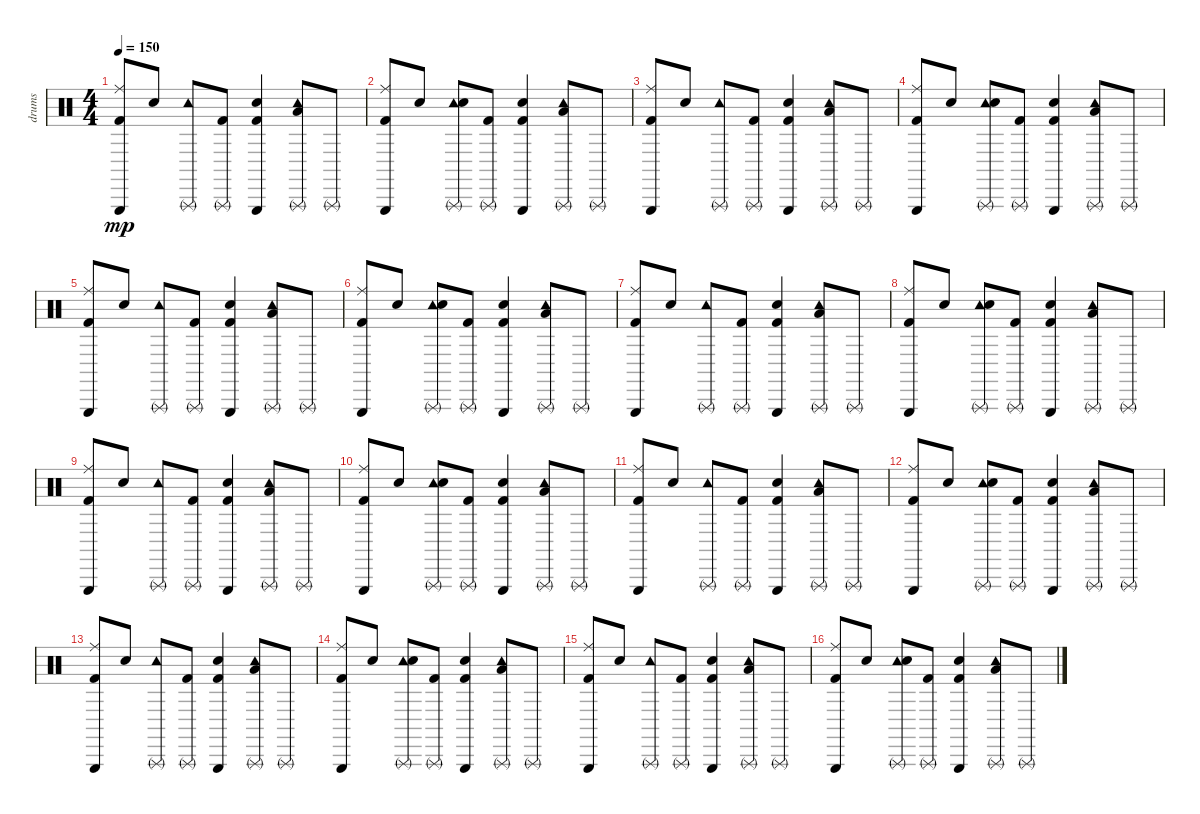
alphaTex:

\track ("drums" "drums") {instrument percussion}
\staff {score}
\articulation defaults
\ts (4 4)
\tempo 150
\clef neutral
\ks c
("Triangle (hit)" "Ride (middle)" "Kick (hit) 2").8{dy mp} "Snare (hit) 2".8 ("Triangle (rnute)" "Tambourine (hit)").8 ("Triangle (rnute)" "Kick (hit) 2").8 ("Triangle (hit)" "Kick (hit) 2" "Snare (hit) 2").4 ("Tambourine (hit)" "Low Tom (hit)" "Triangle (rnute)").8 "Triangle (rnute)".8 |
("Triangle (hit)" "Ride (middle)" "Kick (hit) 2").8 "Snare (hit) 2".8 ("Triangle (rnute)" "Tambourine (hit)" "Snare (hit) 2").8 ("Triangle (rnute)" "Kick (hit) 2").8 ("Triangle (hit)" "Kick (hit) 2" "Snare (hit) 2").4 ("Tambourine (hit)" "Low Tom (hit)" "Triangle (rnute)").8 "Triangle (rnute)".8 |
("Triangle (hit)" "Ride (middle)" "Kick (hit) 2").8 "Snare (hit) 2".8 ("Triangle (rnute)" "Tambourine (hit)").8 ("Triangle (rnute)" "Kick (hit) 2").8 ("Triangle (hit)" "Kick (hit) 2" "Snare (hit) 2").4 ("Tambourine (hit)" "Low Tom (hit)" "Triangle (rnute)").8 "Triangle (rnute)".8 |
("Triangle (hit)" "Ride (middle)" "Kick (hit) 2").8 "Snare (hit) 2".8 ("Triangle (rnute)" "Tambourine (hit)" "Snare (hit) 2").8 ("Triangle (rnute)" "Kick (hit) 2").8 ("Triangle (hit)" "Kick (hit) 2" "Snare (hit) 2").4 ("Tambourine (hit)" "Low Tom (hit)" "Triangle (rnute)").8 "Triangle (rnute)".8 |
("Triangle (hit)" "Ride (middle)" "Kick (hit) 2").8 "Snare (hit) 2".8 ("Triangle (rnute)" "Tambourine (hit)").8 ("Triangle (rnute)" "Kick (hit) 2").8 ("Triangle (hit)" "Kick (hit) 2" "Snare (hit) 2").4 ("Tambourine (hit)" "Low Tom (hit)" "Triangle (rnute)").8 "Triangle (rnute)".8 |
("Triangle (hit)" "Ride (middle)" "Kick (hit) 2").8 "Snare (hit) 2".8 ("Triangle (rnute)" "Tambourine (hit)" "Snare (hit) 2").8 ("Triangle (rnute)" "Kick (hit) 2").8 ("Triangle (hit)" "Kick (hit) 2" "Snare (hit) 2").4 ("Tambourine (hit)" "Low Tom (hit)" "Triangle (rnute)").8 "Triangle (rnute)".8 |
("Triangle (hit)" "Ride (middle)" "Kick (hit) 2").8 "Snare (hit) 2".8 ("Triangle (rnute)" "Tambourine (hit)").8 ("Triangle (rnute)" "Kick (hit) 2").8 ("Triangle (hit)" "Kick (hit) 2" "Snare (hit) 2").4 ("Tambourine (hit)" "Low Tom (hit)" "Triangle (rnute)").8 "Triangle (rnute)".8 |
("Triangle (hit)" "Ride (middle)" "Kick (hit) 2").8 "Snare (hit) 2".8 ("Triangle (rnute)" "Tambourine (hit)" "Snare (hit) 2").8 ("Triangle (rnute)" "Kick (hit) 2").8 ("Triangle (hit)" "Kick (hit) 2" "Snare (hit) 2").4 ("Tambourine (hit)" "Low Tom (hit)" "Triangle (rnute)").8 "Triangle (rnute)".8 |
("Triangle (hit)" "Ride (middle)" "Kick (hit) 2").8 "Snare (hit) 2".8 ("Triangle (rnute)" "Tambourine (hit)").8 ("Triangle (rnute)" "Kick (hit) 2").8 ("Triangle (hit)" "Kick (hit) 2" "Snare (hit) 2").4 ("Tambourine (hit)" "Low Tom (hit)" "Triangle (rnute)").8 "Triangle (rnute)".8 |
("Triangle (hit)" "Ride (middle)" "Kick (hit) 2").8 "Snare (hit) 2".8 ("Triangle (rnute)" "Tambourine (hit)" "Snare (hit) 2").8 ("Triangle (rnute)" "Kick (hit) 2").8 ("Triangle (hit)" "Kick (hit) 2" "Snare (hit) 2").4 ("Tambourine (hit)" "Low Tom (hit)" "Triangle (rnute)").8 "Triangle (rnute)".8 |
("Triangle (hit)" "Ride (middle)" "Kick (hit) 2").8 "Snare (hit) 2".8 ("Triangle (rnute)" "Tambourine (hit)").8 ("Triangle (rnute)" "Kick (hit) 2").8 ("Triangle (hit)" "Kick (hit) 2" "Snare (hit) 2").4 ("Tambourine (hit)" "Low Tom (hit)" "Triangle (rnute)").8 "Triangle (rnute)".8 |
("Triangle (hit)" "Ride (middle)" "Kick (hit) 2").8 "Snare (hit) 2".8 ("Triangle (rnute)" "Tambourine (hit)" "Snare (hit) 2").8 ("Triangle (rnute)" "Kick (hit) 2").8 ("Triangle (hit)" "Kick (hit) 2" "Snare (hit) 2").4 ("Tambourine (hit)" "Low Tom (hit)" "Triangle (rnute)").8 "Triangle (rnute)".8 |
("Triangle (hit)" "Ride (middle)" "Kick (hit) 2").8 "Snare (hit) 2".8 ("Triangle (rnute)" "Tambourine (hit)").8 ("Triangle (rnute)" "Kick (hit) 2").8 ("Triangle (hit)" "Kick (hit) 2" "Snare (hit) 2").4 ("Tambourine (hit)" "Low Tom (hit)" "Triangle (rnute)").8 "Triangle (rnute)".8 |
("Triangle (hit)" "Ride (middle)" "Kick (hit) 2").8 "Snare (hit) 2".8 ("Triangle (rnute)" "Tambourine (hit)" "Snare (hit) 2").8 ("Triangle (rnute)" "Kick (hit) 2").8 ("Triangle (hit)" "Kick (hit) 2" "Snare (hit) 2").4 ("Tambourine (hit)" "Low Tom (hit)" "Triangle (rnute)").8 "Triangle (rnute)".8 |
("Triangle (hit)" "Ride (middle)" "Kick (hit) 2").8 "Snare (hit) 2".8 ("Triangle (rnute)" "Tambourine (hit)").8 ("Triangle (rnute)" "Kick (hit) 2").8 ("Triangle (hit)" "Kick (hit) 2" "Snare (hit) 2").4 ("Tambourine (hit)" "Low Tom (hit)" "Triangle (rnute)").8 "Triangle (rnute)".8 |
("Triangle (hit)" "Ride (middle)" "Kick (hit) 2").8 "Snare (hit) 2".8 ("Triangle (rnute)" "Tambourine (hit)" "Snare (hit) 2").8 ("Triangle (rnute)" "Kick (hit) 2").8 ("Triangle (hit)" "Kick (hit) 2" "Snare (hit) 2").4 ("Tambourine (hit)" "Low Tom (hit)" "Triangle (rnute)").8 "Triangle (rnute)".8
